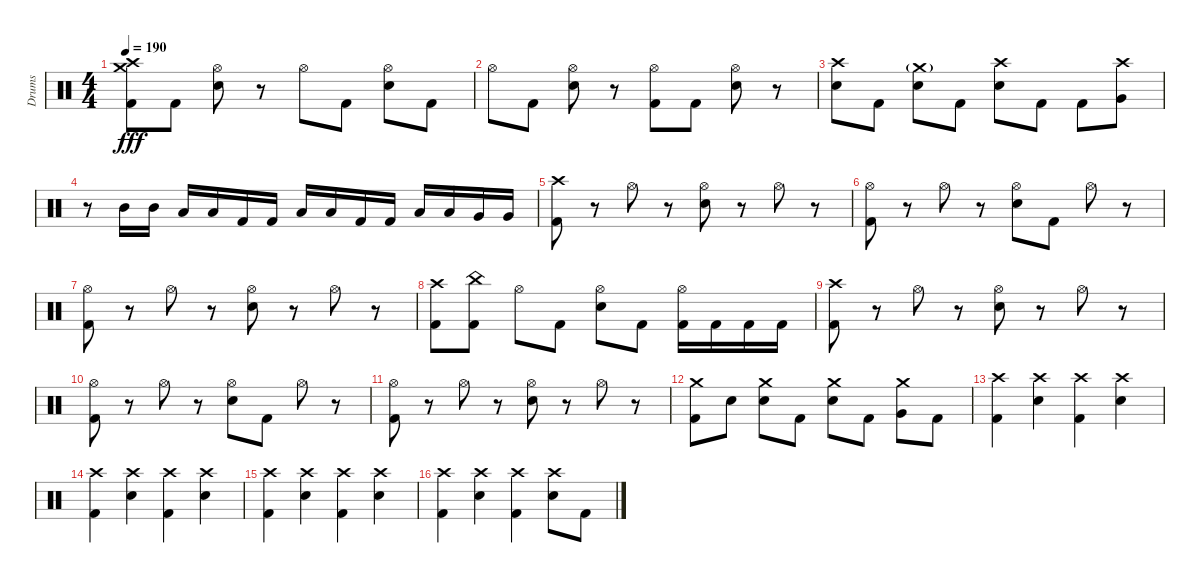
\track ("Drums" "Drums") {instrument percussion}
\staff {score}
\articulation defaults
\ts (4 4)
\tempo 190
\clef neutral
\ks c
("Crash medium (hit)" "Crash high (hit)" "Kick (hit) 2").8{dy fff} "Kick (hit) 2".8 ("Hi-Hat (open)" "Electric Snare (hit)").8 r.8 "Hi-Hat (open)".8 "Kick (hit) 2".8 ("Hi-Hat (open)" "Electric Snare (hit)").8 "Kick (hit) 2".8 |
"Hi-Hat (open)".8 "Kick (hit) 2".8 ("Hi-Hat (open)" "Electric Snare (hit)").8 r.8 ("Hi-Hat (open)" "Kick (hit) 2").8 "Kick (hit) 2".8 ("Hi-Hat (open)" "Electric Snare (hit)").8 r.8 |
("Crash high (hit)" "Electric Snare (hit)").8 "Kick (hit) 2".8 ("Crash medium (hit)"{g} "Electric Snare (hit)").8 "Kick (hit) 2".8 ("Crash high (hit)" "Electric Snare (hit)").8 "Kick (hit) 2".8 "Kick (hit) 2".8 ("Crash high (hit)" "Very Low Tom (hit)").8 |
r.8 "Mid Tom (hit)".16 "Mid Tom (hit)".16 "Low Tom (hit)".16 "Low Tom (hit)".16 "Kick (hit) 2".16 "Kick (hit) 2".16 "Low Tom (hit)".16 "Low Tom (hit)".16 "Kick (hit) 2".16 "Kick (hit) 2".16 "Low Tom (hit)".16 "Low Tom (hit)".16 "Very Low Tom (hit)".16 "Very Low Tom (hit)".16 |
("Crash high (hit)" "Kick (hit) 2").8 r.8 "Hi-Hat (open)".8 r.8 ("Hi-Hat (open)" "Snare (hit) 2").8 r.8 "Hi-Hat (open)".8 r.8 |
("Hi-Hat (open)" "Kick (hit) 2").8 r.8 "Hi-Hat (open)".8 r.8 ("Hi-Hat (open)" "Snare (hit) 2").8 "Kick (hit) 2".8 "Hi-Hat (open)".8 r.8 |
("Hi-Hat (open)" "Kick (hit) 2").8 r.8 "Hi-Hat (open)".8 r.8 ("Hi-Hat (open)" "Snare (hit) 2").8 r.8 "Hi-Hat (open)".8 r.8 |
("Crash high (hit)" "Kick (hit) 2").8 ("China (hit)" "Kick (hit) 2").8 "Hi-Hat (open)".8 "Kick (hit) 2".8 ("Hi-Hat (open)" "Snare (hit) 2").8 "Kick (hit) 2".8 ("Hi-Hat (open)" "Kick (hit) 2").16 "Kick (hit) 2".16 "Kick (hit) 2".16 "Kick (hit) 2".16 |
("Crash high (hit)" "Kick (hit) 2").8 r.8 "Hi-Hat (open)".8 r.8 ("Hi-Hat (open)" "Snare (hit) 2").8 r.8 "Hi-Hat (open)".8 r.8 |
("Hi-Hat (open)" "Kick (hit) 2").8 r.8 "Hi-Hat (open)".8 r.8 ("Hi-Hat (open)" "Snare (hit) 2").8 "Kick (hit) 2".8 "Hi-Hat (open)".8 r.8 |
("Hi-Hat (open)" "Kick (hit) 2").8 r.8 "Hi-Hat (open)".8 r.8 ("Hi-Hat (open)" "Snare (hit) 2").8 r.8 "Hi-Hat (open)".8 r.8 |
("Crash medium (hit)" "Kick (hit) 2").8 "Electric Snare (hit)".8 ("Crash medium (hit)" "Electric Snare (hit)").8 "Kick (hit) 2".8 ("Crash medium (hit)" "Electric Snare (hit)").8 "Kick (hit) 2".8 ("Crash medium (hit)" "Very Low Tom (hit)").8 "Kick (hit) 2".8 |
("Crash high (hit)" "Kick (hit) 2").4 ("Crash high (hit)" "Snare (hit) 2").4 ("Crash high (hit)" "Kick (hit) 2").4 ("Crash high (hit)" "Snare (hit) 2").4 |
("Crash high (hit)" "Kick (hit) 2").4 ("Crash high (hit)" "Snare (hit) 2").4 ("Crash high (hit)" "Kick (hit) 2").4 ("Crash high (hit)" "Snare (hit) 2").4 |
("Crash high (hit)" "Kick (hit) 2").4 ("Crash high (hit)" "Snare (hit) 2").4 ("Crash high (hit)" "Kick (hit) 2").4 ("Crash high (hit)" "Snare (hit) 2").4 |
("Crash high (hit)" "Kick (hit) 2").4 ("Crash high (hit)" "Snare (hit) 2").4 ("Crash high (hit)" "Kick (hit) 2").4 ("Crash high (hit)" "Snare (hit) 2").8 "Kick (hit) 2".8
